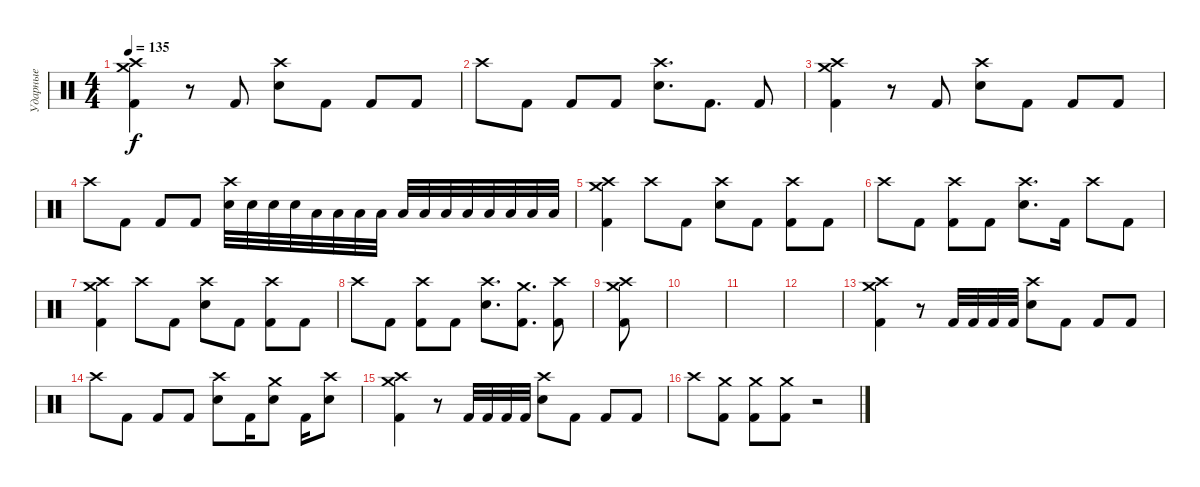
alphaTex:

\track ("Ударные" "Ударные") {instrument percussion}
\staff {score}
\articulation defaults
\ts (4 4)
\tempo 135
\clef neutral
\ks c
("Crash medium (hit)" "Crash high (hit)" "Kick (hit) 2").4{dy f} r.8 "Kick (hit) 2".8 ("Crash high (hit)" "Electric Snare (hit)").8 "Kick (hit) 2".8 "Kick (hit) 2".8 "Kick (hit) 2".8 |
"Crash high (hit)".8 "Kick (hit) 2".8 "Kick (hit) 2".8 "Kick (hit) 2".8 ("Crash high (hit)" "Electric Snare (hit)").8{d} "Kick (hit) 2".8{d} "Kick (hit) 2".8 |
("Crash medium (hit)" "Crash high (hit)" "Kick (hit) 2").4 r.8 "Kick (hit) 2".8 ("Crash high (hit)" "Electric Snare (hit)").8 "Kick (hit) 2".8 "Kick (hit) 2".8 "Kick (hit) 2".8 |
"Crash high (hit)".8 "Kick (hit) 2".8 "Kick (hit) 2".8 "Kick (hit) 2".8 ("Crash high (hit)" "Electric Snare (hit)").32 "Electric Snare (hit)".32 "Electric Snare (hit)".32 "Electric Snare (hit)".32 "Low Tom (hit)".32 "Low Tom (hit)".32 "Low Floor Tom (hit)".32 "Low Floor Tom (hit)".32 "Low Tom (hit)".32 "Low Tom (hit)".32 "Low Floor Tom (hit)".32 "Low Floor Tom (hit)".32 "Low Tom (hit)".32 "Low Tom (hit)".32 "Low Floor Tom (hit)".32 "Low Floor Tom (hit)".32 |
("Crash medium (hit)" "Crash high (hit)" "Kick (hit) 2").4 "Crash high (hit)".8 "Kick (hit) 2".8 ("Crash high (hit)" "Electric Snare (hit)").8 "Kick (hit) 2".8 ("Crash high (hit)" "Kick (hit) 2").8 "Kick (hit) 2".8 |
"Crash high (hit)".8 "Kick (hit) 2".8 ("Crash high (hit)" "Kick (hit) 2").8 "Kick (hit) 2".8 ("Crash high (hit)" "Electric Snare (hit)").8{d} "Kick (hit) 2".16 "Crash high (hit)".8 "Kick (hit) 2".8 |
("Crash medium (hit)" "Crash high (hit)" "Kick (hit) 2").4 "Crash high (hit)".8 "Kick (hit) 2".8 ("Crash high (hit)" "Electric Snare (hit)").8 "Kick (hit) 2".8 ("Crash high (hit)" "Kick (hit) 2").8 "Kick (hit) 2".8 |
"Crash high (hit)".8 "Kick (hit) 2".8 ("Crash high (hit)" "Kick (hit) 2").8 "Kick (hit) 2".8 ("Crash high (hit)" "Electric Snare (hit)").8{d} ("Crash medium (hit)" "Kick (hit) 2").8{d} ("Crash high (hit)" "Kick (hit) 2").8 |
("Crash medium (hit)" "Crash high (hit)" "Kick (hit) 2").8 |
|
|
|
("Crash medium (hit)" "Crash high (hit)" "Kick (hit) 2").4 r.8 "Kick (hit) 2".32 "Kick (hit) 2".32 "Kick (hit) 2".32 "Kick (hit) 2".32 ("Crash high (hit)" "Electric Snare (hit)").8 "Kick (hit) 2".8 "Kick (hit) 2".8 "Kick (hit) 2".8 |
"Crash high (hit)".8 "Kick (hit) 2".8 "Kick (hit) 2".8 "Kick (hit) 2".8 ("Crash high (hit)" "Electric Snare (hit)").8 "Kick (hit) 2".16 ("Crash medium (hit)" "Electric Snare (hit)").8 "Kick (hit) 2".16 ("Crash high (hit)" "Electric Snare (hit)").8 |
("Crash medium (hit)" "Crash high (hit)" "Kick (hit) 2").4 r.8 "Kick (hit) 2".32 "Kick (hit) 2".32 "Kick (hit) 2".32 "Kick (hit) 2".32 ("Crash high (hit)" "Electric Snare (hit)").8 "Kick (hit) 2".8 "Kick (hit) 2".8 "Kick (hit) 2".8 |
"Crash high (hit)".8 ("Crash medium (hit)" "Kick (hit) 2").8 ("Crash medium (hit)" "Kick (hit) 2").8 ("Crash medium (hit)" "Kick (hit) 2").8 r.2
